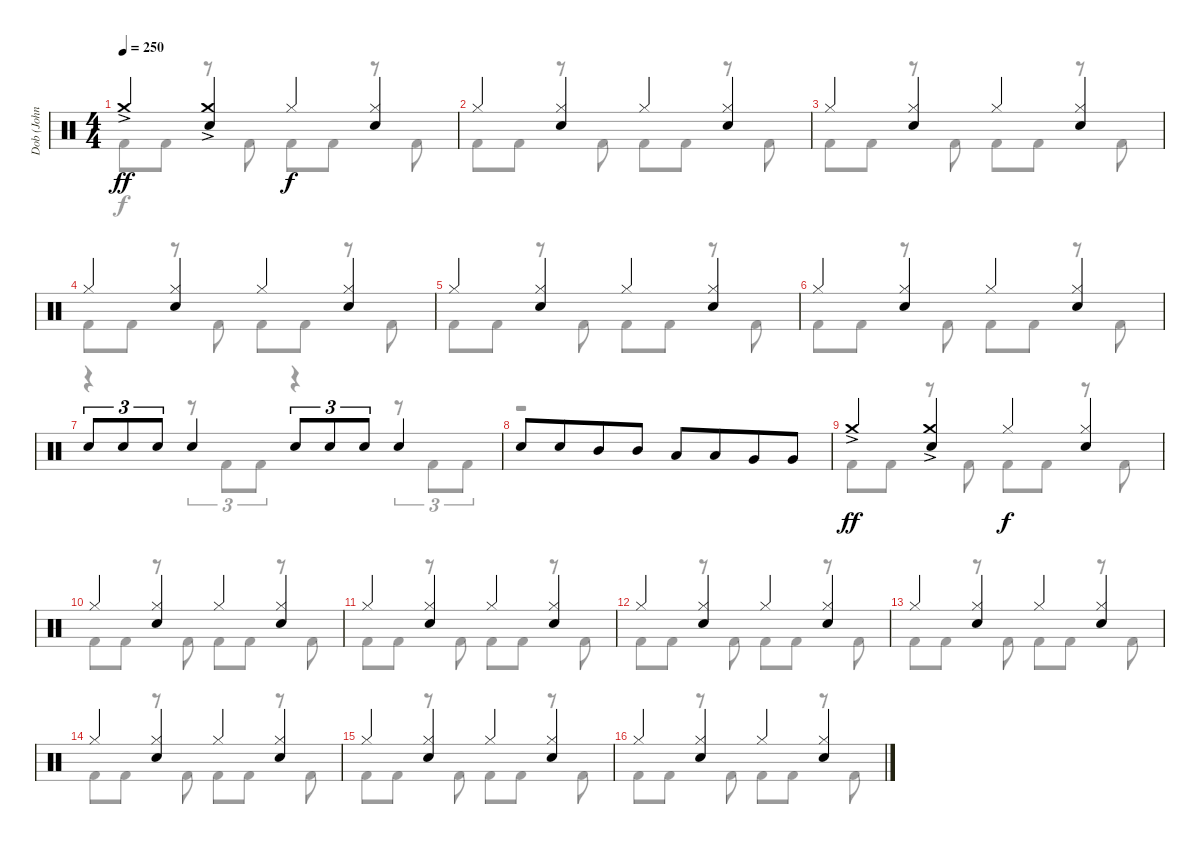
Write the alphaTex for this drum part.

\track ("Dob (John Macaluso)" "Dob (John ") {instrument percussion}
\staff {score}
\articulation defaults
\voice
\ts (4 4)
\tempo 250
\clef neutral
\ks c "Crash medium (hit)"{ac}.4{dy ff}
("Crash medium (hit)"{ac} "Electric Snare (hit)").4 "Hi-Hat (closed)".4{dy f} ("Hi-Hat (closed)" "Electric Snare (hit)").4 |
"Hi-Hat (closed)".4 ("Hi-Hat (closed)" "Electric Snare (hit)").4 "Hi-Hat (closed)".4 ("Hi-Hat (closed)" "Electric Snare (hit)").4 |
"Hi-Hat (closed)".4 ("Hi-Hat (closed)" "Electric Snare (hit)").4 "Hi-Hat (closed)".4 ("Hi-Hat (closed)" "Electric Snare (hit)").4 |
"Hi-Hat (closed)".4 ("Hi-Hat (closed)" "Electric Snare (hit)").4 "Hi-Hat (closed)".4 ("Hi-Hat (closed)" "Electric Snare (hit)").4 |
"Hi-Hat (closed)".4 ("Hi-Hat (closed)" "Electric Snare (hit)").4 "Hi-Hat (closed)".4 ("Hi-Hat (closed)" "Electric Snare (hit)").4 |
"Hi-Hat (closed)".4 ("Hi-Hat (closed)" "Electric Snare (hit)").4 "Hi-Hat (closed)".4 ("Hi-Hat (closed)" "Electric Snare (hit)").4 |
"Electric Snare (hit)".8{tu (3 2)} "Electric Snare (hit)".8{tu (3 2)} "Electric Snare (hit)".8{tu (3 2)} "Electric Snare (hit)".4 "Electric Snare (hit)".8{tu (3 2)} "Electric Snare (hit)".8{tu (3 2)} "Electric Snare (hit)".8{tu (3 2)} "Electric Snare (hit)".4 |
"Electric Snare (hit)".8 "Electric Snare (hit)".8{beam merge} "Mid Tom (hit)".8 "Mid Tom (hit)".8 "Low Tom (hit)".8 "Low Tom (hit)".8{beam merge} "Very Low Tom (hit)".8 "Very Low Tom (hit)".8 |
"Crash medium (hit)"{ac}.4{dy ff} ("Crash medium (hit)"{ac} "Electric Snare (hit)").4 "Hi-Hat (closed)".4{dy f} ("Hi-Hat (closed)" "Electric Snare (hit)").4 |
"Hi-Hat (closed)".4 ("Hi-Hat (closed)" "Electric Snare (hit)").4 "Hi-Hat (closed)".4 ("Hi-Hat (closed)" "Electric Snare (hit)").4 |
"Hi-Hat (closed)".4 ("Hi-Hat (closed)" "Electric Snare (hit)").4 "Hi-Hat (closed)".4 ("Hi-Hat (closed)" "Electric Snare (hit)").4 |
"Hi-Hat (closed)".4 ("Hi-Hat (closed)" "Electric Snare (hit)").4 "Hi-Hat (closed)".4 ("Hi-Hat (closed)" "Electric Snare (hit)").4 |
"Hi-Hat (closed)".4 ("Hi-Hat (closed)" "Electric Snare (hit)").4 "Hi-Hat (closed)".4 ("Hi-Hat (closed)" "Electric Snare (hit)").4 |
"Hi-Hat (closed)".4 ("Hi-Hat (closed)" "Electric Snare (hit)").4 "Hi-Hat (closed)".4 ("Hi-Hat (closed)" "Electric Snare (hit)").4 |
"Hi-Hat (closed)".4 ("Hi-Hat (closed)" "Electric Snare (hit)").4 "Hi-Hat (closed)".4 ("Hi-Hat (closed)" "Electric Snare (hit)").4 |
"Hi-Hat (closed)".4 ("Hi-Hat (closed)" "Electric Snare (hit)").4 "Hi-Hat (closed)".4 ("Hi-Hat (closed)" "Electric Snare (hit)").4
\voice
\clef neutral
\ottava regular
\simile none
\ks c "Kick (hit) 2".8{dy f} "Kick (hit) 2".8
r.8 "Kick (hit) 2".8 "Kick (hit) 2".8 "Kick (hit) 2".8 r.8 "Kick (hit) 2".8 |
"Kick (hit) 2".8 "Kick (hit) 2".8 r.8 "Kick (hit) 2".8 "Kick (hit) 2".8 "Kick (hit) 2".8 r.8 "Kick (hit) 2".8 |
"Kick (hit) 2".8 "Kick (hit) 2".8 r.8 "Kick (hit) 2".8 "Kick (hit) 2".8 "Kick (hit) 2".8 r.8 "Kick (hit) 2".8 |
"Kick (hit) 2".8 "Kick (hit) 2".8 r.8 "Kick (hit) 2".8 "Kick (hit) 2".8 "Kick (hit) 2".8 r.8 "Kick (hit) 2".8 |
"Kick (hit) 2".8 "Kick (hit) 2".8 r.8 "Kick (hit) 2".8 "Kick (hit) 2".8 "Kick (hit) 2".8 r.8 "Kick (hit) 2".8 |
"Kick (hit) 2".8 "Kick (hit) 2".8 r.8 "Kick (hit) 2".8 "Kick (hit) 2".8 "Kick (hit) 2".8 r.8 "Kick (hit) 2".8 |
r.4 r.8{tu (3 2)} "Kick (hit) 2".8{tu (3 2)} "Kick (hit) 2".8{tu (3 2)} r.4 r.8{tu (3 2)} "Kick (hit) 2".8{tu (3 2)} "Kick (hit) 2".8{tu (3 2)} |
r.1 |
"Kick (hit) 2".8 "Kick (hit) 2".8 r.8 "Kick (hit) 2".8 "Kick (hit) 2".8 "Kick (hit) 2".8 r.8 "Kick (hit) 2".8 |
"Kick (hit) 2".8 "Kick (hit) 2".8 r.8 "Kick (hit) 2".8 "Kick (hit) 2".8 "Kick (hit) 2".8 r.8 "Kick (hit) 2".8 |
"Kick (hit) 2".8 "Kick (hit) 2".8 r.8 "Kick (hit) 2".8 "Kick (hit) 2".8 "Kick (hit) 2".8 r.8 "Kick (hit) 2".8 |
"Kick (hit) 2".8 "Kick (hit) 2".8 r.8 "Kick (hit) 2".8 "Kick (hit) 2".8 "Kick (hit) 2".8 r.8 "Kick (hit) 2".8 |
"Kick (hit) 2".8 "Kick (hit) 2".8 r.8 "Kick (hit) 2".8 "Kick (hit) 2".8 "Kick (hit) 2".8 r.8 "Kick (hit) 2".8 |
"Kick (hit) 2".8 "Kick (hit) 2".8 r.8 "Kick (hit) 2".8 "Kick (hit) 2".8 "Kick (hit) 2".8 r.8 "Kick (hit) 2".8 |
"Kick (hit) 2".8 "Kick (hit) 2".8 r.8 "Kick (hit) 2".8 "Kick (hit) 2".8 "Kick (hit) 2".8 r.8 "Kick (hit) 2".8 |
"Kick (hit) 2".8 "Kick (hit) 2".8 r.8 "Kick (hit) 2".8 "Kick (hit) 2".8 "Kick (hit) 2".8 r.8 "Kick (hit) 2".8
